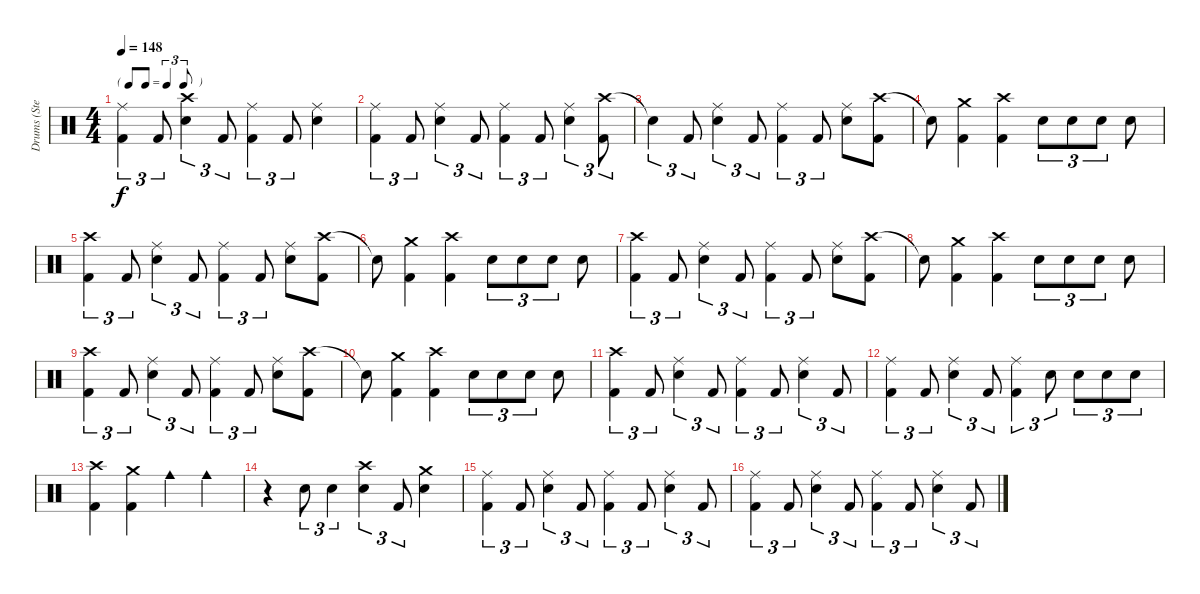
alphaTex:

\track ("Drums (Steven)" "Drums (Ste") {instrument percussion}
\staff {score}
\articulation defaults
\ts (4 4)
\tf triplet8th
\tempo 148
\clef neutral
\ks c
("Ride (middle)" "Kick (hit) 2").4{tu (3 2) dy f} "Kick (hit) 2".8{tu (3 2)} ("Crash high (hit)" "Snare (hit) 2").4{tu (3 2)} "Kick (hit) 2".8{tu (3 2)} ("Ride (middle)" "Kick (hit) 2").4{tu (3 2)} "Kick (hit) 2".8{tu (3 2)} ("Ride (middle)" "Snare (hit) 2").4 |
("Ride (middle)" "Kick (hit) 2").4{tu (3 2)} "Kick (hit) 2".8{tu (3 2)} ("Ride (middle)" "Snare (hit) 2").4{tu (3 2)} "Kick (hit) 2".8{tu (3 2)} ("Ride (middle)" "Kick (hit) 2").4{tu (3 2)} "Kick (hit) 2".8{tu (3 2)} ("Ride (middle)" "Snare (hit) 2").4{tu (3 2)} ("Crash high (hit)" "Kick (hit) 2").8{tu (3 2)} |
"Snare (hit)"{t}.4{tu (3 2)} "Kick (hit) 2".8{tu (3 2)} ("Ride (middle)" "Snare (hit) 2").4{tu (3 2)} "Kick (hit) 2".8{tu (3 2)} ("Ride (middle)" "Kick (hit) 2").4{tu (3 2)} "Kick (hit) 2".8{tu (3 2)} ("Ride (middle)" "Snare (hit) 2").8 ("Crash high (hit)" "Kick (hit) 2").8 |
"Snare (hit)"{t}.8 ("Crash medium (hit)" "Kick (hit) 2").4 ("Crash high (hit)" "Kick (hit) 2").4 "Snare (hit) 2".8{tu (3 2)} "Snare (hit) 2".8{tu (3 2)} "Snare (hit) 2".8{tu (3 2)} "Snare (hit) 2".8 |
("Crash high (hit)" "Kick (hit) 2").4{tu (3 2)} "Kick (hit) 2".8{tu (3 2)} ("Ride (middle)" "Snare (hit) 2").4{tu (3 2)} "Kick (hit) 2".8{tu (3 2)} ("Ride (middle)" "Kick (hit) 2").4{tu (3 2)} "Kick (hit) 2".8{tu (3 2)} ("Ride (middle)" "Snare (hit) 2").8 ("Crash high (hit)" "Kick (hit) 2").8 |
"Snare (hit)"{t}.8 ("Crash medium (hit)" "Kick (hit) 2").4 ("Crash high (hit)" "Kick (hit) 2").4 "Snare (hit) 2".8{tu (3 2)} "Snare (hit) 2".8{tu (3 2)} "Snare (hit) 2".8{tu (3 2)} "Snare (hit) 2".8 |
("Crash high (hit)" "Kick (hit) 2").4{tu (3 2)} "Kick (hit) 2".8{tu (3 2)} ("Ride (middle)" "Snare (hit) 2").4{tu (3 2)} "Kick (hit) 2".8{tu (3 2)} ("Ride (middle)" "Kick (hit) 2").4{tu (3 2)} "Kick (hit) 2".8{tu (3 2)} ("Ride (middle)" "Snare (hit) 2").8 ("Crash high (hit)" "Kick (hit) 2").8 |
"Snare (hit)"{t}.8 ("Crash medium (hit)" "Kick (hit) 2").4 ("Crash high (hit)" "Kick (hit) 2").4 "Snare (hit) 2".8{tu (3 2)} "Snare (hit) 2".8{tu (3 2)} "Snare (hit) 2".8{tu (3 2)} "Snare (hit) 2".8 |
("Crash high (hit)" "Kick (hit) 2").4{tu (3 2)} "Kick (hit) 2".8{tu (3 2)} ("Ride (middle)" "Snare (hit) 2").4{tu (3 2)} "Kick (hit) 2".8{tu (3 2)} ("Ride (middle)" "Kick (hit) 2").4{tu (3 2)} "Kick (hit) 2".8{tu (3 2)} ("Ride (middle)" "Snare (hit) 2").8 ("Crash high (hit)" "Kick (hit) 2").8 |
"Snare (hit)"{t}.8 ("Crash medium (hit)" "Kick (hit) 2").4 ("Crash high (hit)" "Kick (hit) 2").4 "Snare (hit) 2".8{tu (3 2)} "Snare (hit) 2".8{tu (3 2)} "Snare (hit) 2".8{tu (3 2)} "Snare (hit) 2".8 |
("Crash high (hit)" "Kick (hit) 2").4{tu (3 2)} "Kick (hit) 2".8{tu (3 2)} ("Ride (middle)" "Snare (hit) 2").4{tu (3 2)} "Kick (hit) 2".8{tu (3 2)} ("Ride (middle)" "Kick (hit) 2").4{tu (3 2)} "Kick (hit) 2".8{tu (3 2)} ("Ride (middle)" "Snare (hit) 2").4{tu (3 2)} "Kick (hit) 2".8{tu (3 2)} |
("Ride (middle)" "Kick (hit) 2").4{tu (3 2)} "Kick (hit) 2".8{tu (3 2)} ("Ride (middle)" "Snare (hit) 2").4{tu (3 2)} "Kick (hit) 2".8{tu (3 2)} ("Ride (middle)" "Kick (hit) 2").4{tu (3 2)} "Snare (hit) 2".8{tu (3 2)} "Snare (hit) 2".8{tu (3 2)} "Snare (hit) 2".8{tu (3 2)} "Snare (hit) 2".8{tu (3 2)} |
("Crash high (hit)" "Kick (hit) 2").4 ("Crash medium (hit)" "Kick (hit) 2").4 "Cowbell medium (hit)".4 "Cowbell medium (hit)".4 |
r.4 "Snare (hit) 2".8{tu (3 2)} "Snare (hit) 2".4{tu (3 2)} ("Crash high (hit)" "Snare (hit) 2").4{tu (3 2)} "Kick (hit) 2".8{tu (3 2)} ("Crash medium (hit)" "Snare (hit) 2").4 |
("Ride (middle)" "Kick (hit) 2").4{tu (3 2)} "Kick (hit) 2".8{tu (3 2)} ("Ride (middle)" "Snare (hit) 2").4{tu (3 2)} "Kick (hit) 2".8{tu (3 2)} ("Ride (middle)" "Kick (hit) 2").4{tu (3 2)} "Kick (hit) 2".8{tu (3 2)} ("Ride (middle)" "Snare (hit) 2").4{tu (3 2)} "Kick (hit) 2".8{tu (3 2)} |
("Ride (middle)" "Kick (hit) 2").4{tu (3 2)} "Kick (hit) 2".8{tu (3 2)} ("Ride (middle)" "Snare (hit) 2").4{tu (3 2)} "Kick (hit) 2".8{tu (3 2)} ("Ride (middle)" "Kick (hit) 2").4{tu (3 2)} "Kick (hit) 2".8{tu (3 2)} ("Ride (middle)" "Snare (hit) 2").4{tu (3 2)} "Kick (hit) 2".8{tu (3 2)}
